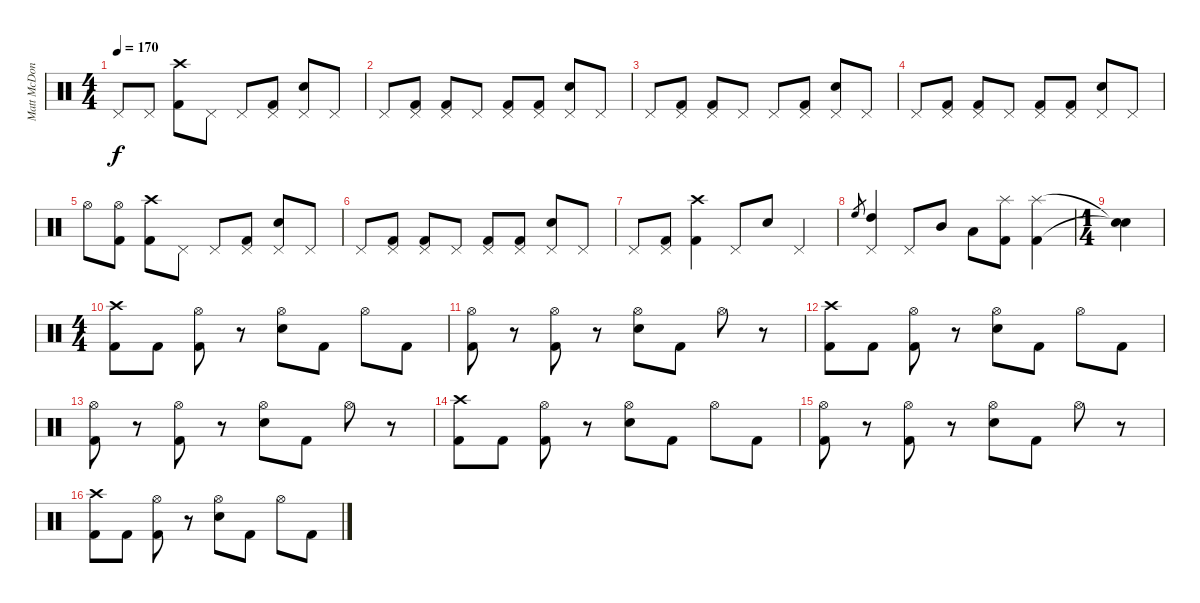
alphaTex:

\track ("Matt McDonough" "Matt McDon") {instrument percussion}
\staff {score}
\articulation defaults
\ts (4 4)
\tempo 170
\clef neutral
\ks c "Pedal Hi-Hat (hit)".8{dy f} "Pedal Hi-Hat (hit)".8
("Crash high (hit)" "Kick (hit) 2").8 "Pedal Hi-Hat (hit)".8 "Pedal Hi-Hat (hit)".8 ("Pedal Hi-Hat (hit)" "Kick (hit) 2").8 ("Pedal Hi-Hat (hit)" "Electric Snare (hit)").8 "Pedal Hi-Hat (hit)".8 |
"Pedal Hi-Hat (hit)".8 ("Pedal Hi-Hat (hit)" "Kick (hit) 2").8 ("Pedal Hi-Hat (hit)" "Kick (hit) 2").8 "Pedal Hi-Hat (hit)".8 ("Pedal Hi-Hat (hit)" "Kick (hit) 2").8 ("Pedal Hi-Hat (hit)" "Kick (hit) 2").8 ("Pedal Hi-Hat (hit)" "Electric Snare (hit)").8 "Pedal Hi-Hat (hit)".8 |
"Pedal Hi-Hat (hit)".8 ("Pedal Hi-Hat (hit)" "Kick (hit) 2").8 ("Pedal Hi-Hat (hit)" "Kick (hit) 2").8 "Pedal Hi-Hat (hit)".8 "Pedal Hi-Hat (hit)".8 ("Pedal Hi-Hat (hit)" "Kick (hit) 2").8 ("Pedal Hi-Hat (hit)" "Electric Snare (hit)").8 "Pedal Hi-Hat (hit)".8 |
"Pedal Hi-Hat (hit)".8 ("Pedal Hi-Hat (hit)" "Kick (hit) 2").8 ("Pedal Hi-Hat (hit)" "Kick (hit) 2").8 "Pedal Hi-Hat (hit)".8 ("Pedal Hi-Hat (hit)" "Kick (hit) 2").8 ("Pedal Hi-Hat (hit)" "Kick (hit) 2").8 ("Pedal Hi-Hat (hit)" "Electric Snare (hit)").8 "Pedal Hi-Hat (hit)".8 |
"Hi-Hat (open)".8 ("Hi-Hat (open)" "Kick (hit) 2").8 ("Crash high (hit)" "Kick (hit) 2").8 "Pedal Hi-Hat (hit)".8 "Pedal Hi-Hat (hit)".8 ("Pedal Hi-Hat (hit)" "Kick (hit) 2").8 ("Pedal Hi-Hat (hit)" "Electric Snare (hit)").8 "Pedal Hi-Hat (hit)".8 |
"Pedal Hi-Hat (hit)".8 ("Pedal Hi-Hat (hit)" "Kick (hit) 2").8 ("Pedal Hi-Hat (hit)" "Kick (hit) 2").8 "Pedal Hi-Hat (hit)".8 ("Pedal Hi-Hat (hit)" "Kick (hit) 2").8 ("Pedal Hi-Hat (hit)" "Kick (hit) 2").8 ("Pedal Hi-Hat (hit)" "Electric Snare (hit)").8 "Pedal Hi-Hat (hit)".8 |
"Pedal Hi-Hat (hit)".8 ("Pedal Hi-Hat (hit)" "Kick (hit) 2").8 ("Crash high (hit)" "Kick (hit) 2").4 "Pedal Hi-Hat (hit)".8 "Electric Snare (hit)".8 "Pedal Hi-Hat (hit)".4 |
"High Floor Tom (hit)".8{gr} ("Pedal Hi-Hat (hit)" "High Tom (hit)").4 "Pedal Hi-Hat (hit)".8 "Mid Tom (hit)".8 "Low Tom (hit)".8 ("Splash (hit)" "Kick (hit) 2").8 ("Splash (hit)" "Kick (hit) 2").4 |
\ts (1 4)
("Snare (hit)"{t} "Snare (hit)"{t}).4 |
\ts (4 4)
("Crash high (hit)" "Kick (hit) 2").8 "Kick (hit) 2".8 ("Hi-Hat (open)" "Kick (hit) 2").8 r.8 ("Hi-Hat (open)" "Electric Snare (hit)").8 "Kick (hit) 2".8 "Hi-Hat (open)".8 "Kick (hit) 2".8 |
("Hi-Hat (open)" "Kick (hit) 2").8 r.8 ("Hi-Hat (open)" "Kick (hit) 2").8 r.8 ("Hi-Hat (open)" "Electric Snare (hit)").8 "Kick (hit) 2".8 "Hi-Hat (open)".8 r.8 |
("Crash high (hit)" "Kick (hit) 2").8 "Kick (hit) 2".8 ("Hi-Hat (open)" "Kick (hit) 2").8 r.8 ("Hi-Hat (open)" "Electric Snare (hit)").8 "Kick (hit) 2".8 "Hi-Hat (open)".8 "Kick (hit) 2".8 |
("Hi-Hat (open)" "Kick (hit) 2").8 r.8 ("Hi-Hat (open)" "Kick (hit) 2").8 r.8 ("Hi-Hat (open)" "Electric Snare (hit)").8 "Kick (hit) 2".8 "Hi-Hat (open)".8 r.8 |
("Crash high (hit)" "Kick (hit) 2").8 "Kick (hit) 2".8 ("Hi-Hat (open)" "Kick (hit) 2").8 r.8 ("Hi-Hat (open)" "Electric Snare (hit)").8 "Kick (hit) 2".8 "Hi-Hat (open)".8 "Kick (hit) 2".8 |
("Hi-Hat (open)" "Kick (hit) 2").8 r.8 ("Hi-Hat (open)" "Kick (hit) 2").8 r.8 ("Hi-Hat (open)" "Electric Snare (hit)").8 "Kick (hit) 2".8 "Hi-Hat (open)".8 r.8 |
("Crash high (hit)" "Kick (hit) 2").8 "Kick (hit) 2".8 ("Hi-Hat (open)" "Kick (hit) 2").8 r.8 ("Hi-Hat (open)" "Electric Snare (hit)").8 "Kick (hit) 2".8 "Hi-Hat (open)".8 "Kick (hit) 2".8
